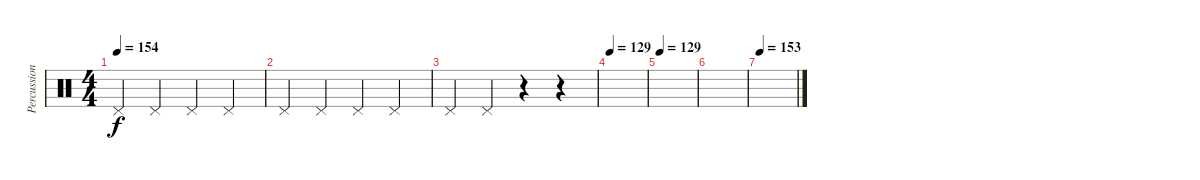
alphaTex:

\track ("Percussion" "Percussion") {instrument percussion}
\staff {score}
\articulation defaults
\ts (4 4)
\tempo 154
\clef neutral
\ks c "Pedal Hi-Hat (hit)".4{dy f} "Pedal Hi-Hat (hit)".4 "Pedal Hi-Hat (hit)".4 "Pedal Hi-Hat (hit)".4
|
"Pedal Hi-Hat (hit)".4 "Pedal Hi-Hat (hit)".4 "Pedal Hi-Hat (hit)".4 "Pedal Hi-Hat (hit)".4 |
"Pedal Hi-Hat (hit)".4 "Pedal Hi-Hat (hit)".4 r.4 r.4 |
\tempo 129
|
\tempo 129
|
|
\tempo 153
